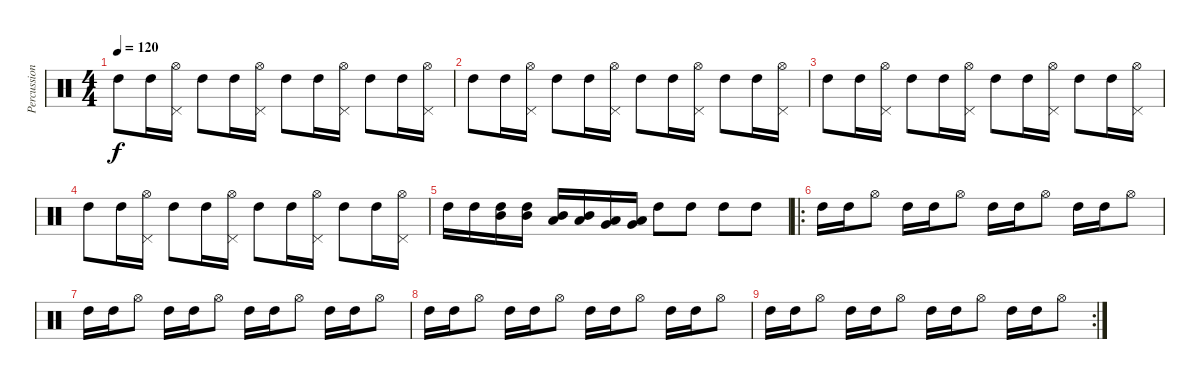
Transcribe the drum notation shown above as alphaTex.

\track ("Percussions" "Percussion") {instrument percussion}
\staff {score}
\articulation defaults
\ts (4 4)
\tempo 120
\clef neutral
\ks c "High Tom (hit)".8{dy f} "High Tom (hit)".16
("Pedal Hi-Hat (hit)" "Hi-Hat (open)").16 "High Tom (hit)".8 "High Tom (hit)".16 ("Pedal Hi-Hat (hit)" "Hi-Hat (open)").16 "High Tom (hit)".8 "High Tom (hit)".16 ("Pedal Hi-Hat (hit)" "Hi-Hat (open)").16 "High Tom (hit)".8 "High Tom (hit)".16 ("Pedal Hi-Hat (hit)" "Hi-Hat (open)").16 |
"High Tom (hit)".8 "High Tom (hit)".16 ("Pedal Hi-Hat (hit)" "Hi-Hat (open)").16 "High Tom (hit)".8 "High Tom (hit)".16 ("Pedal Hi-Hat (hit)" "Hi-Hat (open)").16 "High Tom (hit)".8 "High Tom (hit)".16 ("Pedal Hi-Hat (hit)" "Hi-Hat (open)").16 "High Tom (hit)".8 "High Tom (hit)".16 ("Pedal Hi-Hat (hit)" "Hi-Hat (open)").16 |
"High Tom (hit)".8 "High Tom (hit)".16 ("Pedal Hi-Hat (hit)" "Hi-Hat (open)").16 "High Tom (hit)".8 "High Tom (hit)".16 ("Pedal Hi-Hat (hit)" "Hi-Hat (open)").16 "High Tom (hit)".8 "High Tom (hit)".16 ("Pedal Hi-Hat (hit)" "Hi-Hat (open)").16 "High Tom (hit)".8 "High Tom (hit)".16 ("Pedal Hi-Hat (hit)" "Hi-Hat (open)").16 |
"High Tom (hit)".8 "High Tom (hit)".16 ("Pedal Hi-Hat (hit)" "Hi-Hat (open)").16 "High Tom (hit)".8 "High Tom (hit)".16 ("Pedal Hi-Hat (hit)" "Hi-Hat (open)").16 "High Tom (hit)".8 "High Tom (hit)".16 ("Pedal Hi-Hat (hit)" "Hi-Hat (open)").16 "High Tom (hit)".8 "High Tom (hit)".16 ("Pedal Hi-Hat (hit)" "Hi-Hat (open)").16 |
"High Tom (hit)".16 "High Tom (hit)".16 ("Mid Tom (hit)" "High Tom (hit)").16 ("Mid Tom (hit)" "High Tom (hit)").16 ("Low Tom (hit)" "Mid Tom (hit)").16 ("Low Tom (hit)" "Mid Tom (hit)").16 ("Very Low Tom (hit)" "Low Tom (hit)").16 ("Very Low Tom (hit)" "Low Tom (hit)").16 "High Tom (hit)".8 "High Tom (hit)".8 "High Tom (hit)".8 "High Tom (hit)".8 |
\ro "High Tom (hit)".16 "High Tom (hit)".16 "Hi-Hat (open)".8 "High Tom (hit)".16 "High Tom (hit)".16 "Hi-Hat (open)".8 "High Tom (hit)".16 "High Tom (hit)".16 "Hi-Hat (open)".8 "High Tom (hit)".16 "High Tom (hit)".16 "Hi-Hat (open)".8
|
"High Tom (hit)".16 "High Tom (hit)".16 "Hi-Hat (open)".8 "High Tom (hit)".16 "High Tom (hit)".16 "Hi-Hat (open)".8 "High Tom (hit)".16 "High Tom (hit)".16 "Hi-Hat (open)".8 "High Tom (hit)".16 "High Tom (hit)".16 "Hi-Hat (open)".8 |
"High Tom (hit)".16 "High Tom (hit)".16 "Hi-Hat (open)".8 "High Tom (hit)".16 "High Tom (hit)".16 "Hi-Hat (open)".8 "High Tom (hit)".16 "High Tom (hit)".16 "Hi-Hat (open)".8 "High Tom (hit)".16 "High Tom (hit)".16 "Hi-Hat (open)".8 |
\rc 2 "High Tom (hit)".16 "High Tom (hit)".16 "Hi-Hat (open)".8 "High Tom (hit)".16 "High Tom (hit)".16 "Hi-Hat (open)".8 "High Tom (hit)".16 "High Tom (hit)".16 "Hi-Hat (open)".8 "High Tom (hit)".16 "High Tom (hit)".16 "Hi-Hat (open)".8
